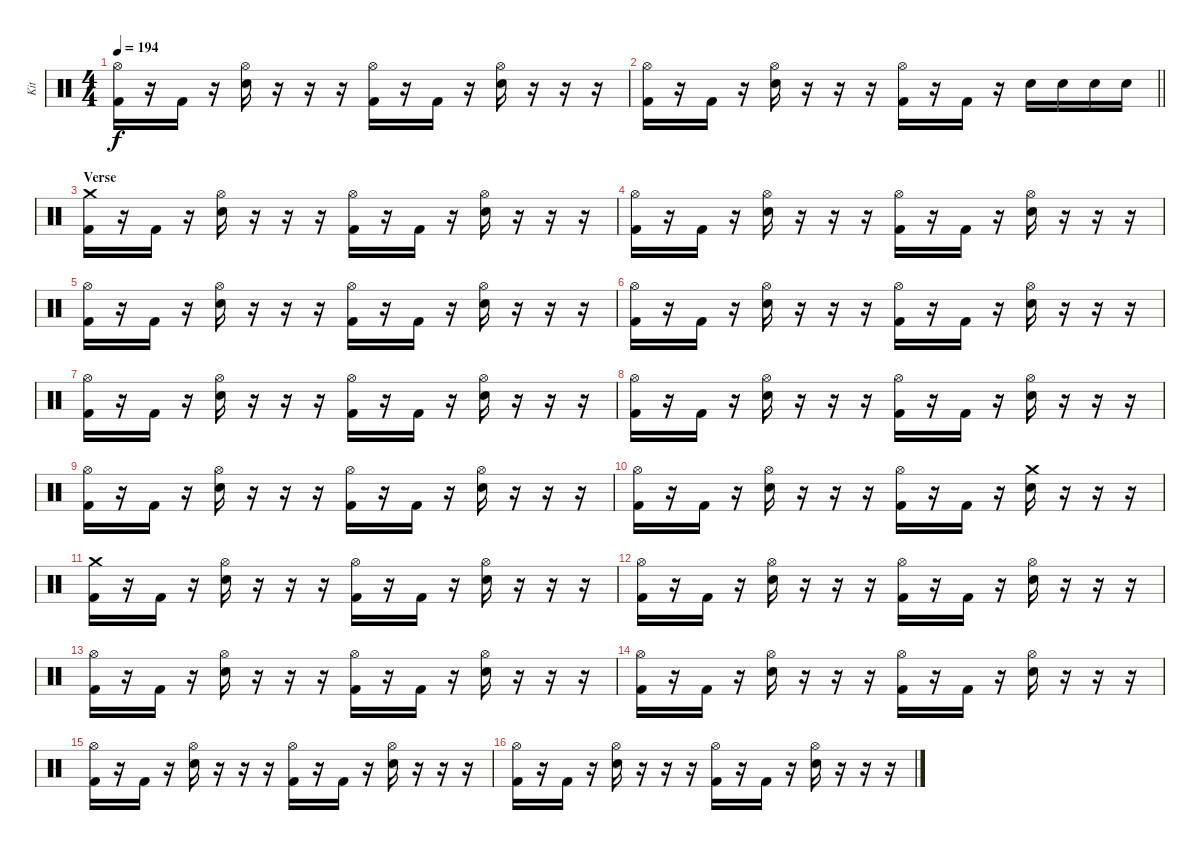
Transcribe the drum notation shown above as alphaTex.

\track ("Kit" "Kit") {instrument percussion}
\staff {score}
\articulation defaults
\ts (4 4)
\tempo 194
\clef neutral
\ks c
("Hi-Hat (open)" "Kick (hit) 2").16{dy f} r.16 "Kick (hit) 2".16 r.16 ("Hi-Hat (open)" "Electric Snare (hit)").16 r.16 r.16 r.16 ("Hi-Hat (open)" "Kick (hit) 2").16 r.16 "Kick (hit) 2".16 r.16 ("Hi-Hat (open)" "Electric Snare (hit)").16 r.16 r.16 r.16 |
\barLineRight lightlight
("Hi-Hat (open)" "Kick (hit) 2").16 r.16 "Kick (hit) 2".16 r.16 ("Hi-Hat (open)" "Electric Snare (hit)").16 r.16 r.16 r.16 ("Hi-Hat (open)" "Kick (hit) 2").16 r.16 "Kick (hit) 2".16 r.16 "Electric Snare (hit)".16 "Electric Snare (hit)".16 "Electric Snare (hit)".16 "Electric Snare (hit)".16 |
\section ("" "Verse")
("Crash medium (hit)" "Kick (hit) 2").16 r.16 "Kick (hit) 2".16 r.16 ("Hi-Hat (open)" "Electric Snare (hit)").16 r.16 r.16 r.16 ("Hi-Hat (open)" "Kick (hit) 2").16 r.16 "Kick (hit) 2".16 r.16 ("Hi-Hat (open)" "Electric Snare (hit)").16 r.16 r.16 r.16 |
("Hi-Hat (open)" "Kick (hit) 2").16 r.16 "Kick (hit) 2".16 r.16 ("Hi-Hat (open)" "Electric Snare (hit)").16 r.16 r.16 r.16 ("Hi-Hat (open)" "Kick (hit) 2").16 r.16 "Kick (hit) 2".16 r.16 ("Hi-Hat (open)" "Electric Snare (hit)").16 r.16 r.16 r.16 |
("Hi-Hat (open)" "Kick (hit) 2").16 r.16 "Kick (hit) 2".16 r.16 ("Hi-Hat (open)" "Electric Snare (hit)").16 r.16 r.16 r.16 ("Hi-Hat (open)" "Kick (hit) 2").16 r.16 "Kick (hit) 2".16 r.16 ("Hi-Hat (open)" "Electric Snare (hit)").16 r.16 r.16 r.16 |
("Hi-Hat (open)" "Kick (hit) 2").16 r.16 "Kick (hit) 2".16 r.16 ("Hi-Hat (open)" "Electric Snare (hit)").16 r.16 r.16 r.16 ("Hi-Hat (open)" "Kick (hit) 2").16 r.16 "Kick (hit) 2".16 r.16 ("Hi-Hat (open)" "Electric Snare (hit)").16 r.16 r.16 r.16 |
("Hi-Hat (open)" "Kick (hit) 2").16 r.16 "Kick (hit) 2".16 r.16 ("Hi-Hat (open)" "Electric Snare (hit)").16 r.16 r.16 r.16 ("Hi-Hat (open)" "Kick (hit) 2").16 r.16 "Kick (hit) 2".16 r.16 ("Hi-Hat (open)" "Electric Snare (hit)").16 r.16 r.16 r.16 |
("Hi-Hat (open)" "Kick (hit) 2").16 r.16 "Kick (hit) 2".16 r.16 ("Hi-Hat (open)" "Electric Snare (hit)").16 r.16 r.16 r.16 ("Hi-Hat (open)" "Kick (hit) 2").16 r.16 "Kick (hit) 2".16 r.16 ("Hi-Hat (open)" "Electric Snare (hit)").16 r.16 r.16 r.16 |
("Hi-Hat (open)" "Kick (hit) 2").16 r.16 "Kick (hit) 2".16 r.16 ("Hi-Hat (open)" "Electric Snare (hit)").16 r.16 r.16 r.16 ("Hi-Hat (open)" "Kick (hit) 2").16 r.16 "Kick (hit) 2".16 r.16 ("Hi-Hat (open)" "Electric Snare (hit)").16 r.16 r.16 r.16 |
("Hi-Hat (open)" "Kick (hit) 2").16 r.16 "Kick (hit) 2".16 r.16 ("Hi-Hat (open)" "Electric Snare (hit)").16 r.16 r.16 r.16 ("Hi-Hat (open)" "Kick (hit) 2").16 r.16 "Kick (hit) 2".16 r.16 ("Crash medium (hit)" "Electric Snare (hit)").16 r.16 r.16 r.16 |
("Crash medium (hit)" "Kick (hit) 2").16 r.16 "Kick (hit) 2".16 r.16 ("Hi-Hat (open)" "Electric Snare (hit)").16 r.16 r.16 r.16 ("Hi-Hat (open)" "Kick (hit) 2").16 r.16 "Kick (hit) 2".16 r.16 ("Hi-Hat (open)" "Electric Snare (hit)").16 r.16 r.16 r.16 |
("Hi-Hat (open)" "Kick (hit) 2").16 r.16 "Kick (hit) 2".16 r.16 ("Hi-Hat (open)" "Electric Snare (hit)").16 r.16 r.16 r.16 ("Hi-Hat (open)" "Kick (hit) 2").16 r.16 "Kick (hit) 2".16 r.16 ("Hi-Hat (open)" "Electric Snare (hit)").16 r.16 r.16 r.16 |
("Hi-Hat (open)" "Kick (hit) 2").16 r.16 "Kick (hit) 2".16 r.16 ("Hi-Hat (open)" "Electric Snare (hit)").16 r.16 r.16 r.16 ("Hi-Hat (open)" "Kick (hit) 2").16 r.16 "Kick (hit) 2".16 r.16 ("Hi-Hat (open)" "Electric Snare (hit)").16 r.16 r.16 r.16 |
("Hi-Hat (open)" "Kick (hit) 2").16 r.16 "Kick (hit) 2".16 r.16 ("Hi-Hat (open)" "Electric Snare (hit)").16 r.16 r.16 r.16 ("Hi-Hat (open)" "Kick (hit) 2").16 r.16 "Kick (hit) 2".16 r.16 ("Hi-Hat (open)" "Electric Snare (hit)").16 r.16 r.16 r.16 |
("Hi-Hat (open)" "Kick (hit) 2").16 r.16 "Kick (hit) 2".16 r.16 ("Hi-Hat (open)" "Electric Snare (hit)").16 r.16 r.16 r.16 ("Hi-Hat (open)" "Kick (hit) 2").16 r.16 "Kick (hit) 2".16 r.16 ("Hi-Hat (open)" "Electric Snare (hit)").16 r.16 r.16 r.16 |
("Hi-Hat (open)" "Kick (hit) 2").16 r.16 "Kick (hit) 2".16 r.16 ("Hi-Hat (open)" "Electric Snare (hit)").16 r.16 r.16 r.16 ("Hi-Hat (open)" "Kick (hit) 2").16 r.16 "Kick (hit) 2".16 r.16 ("Hi-Hat (open)" "Electric Snare (hit)").16 r.16 r.16 r.16
